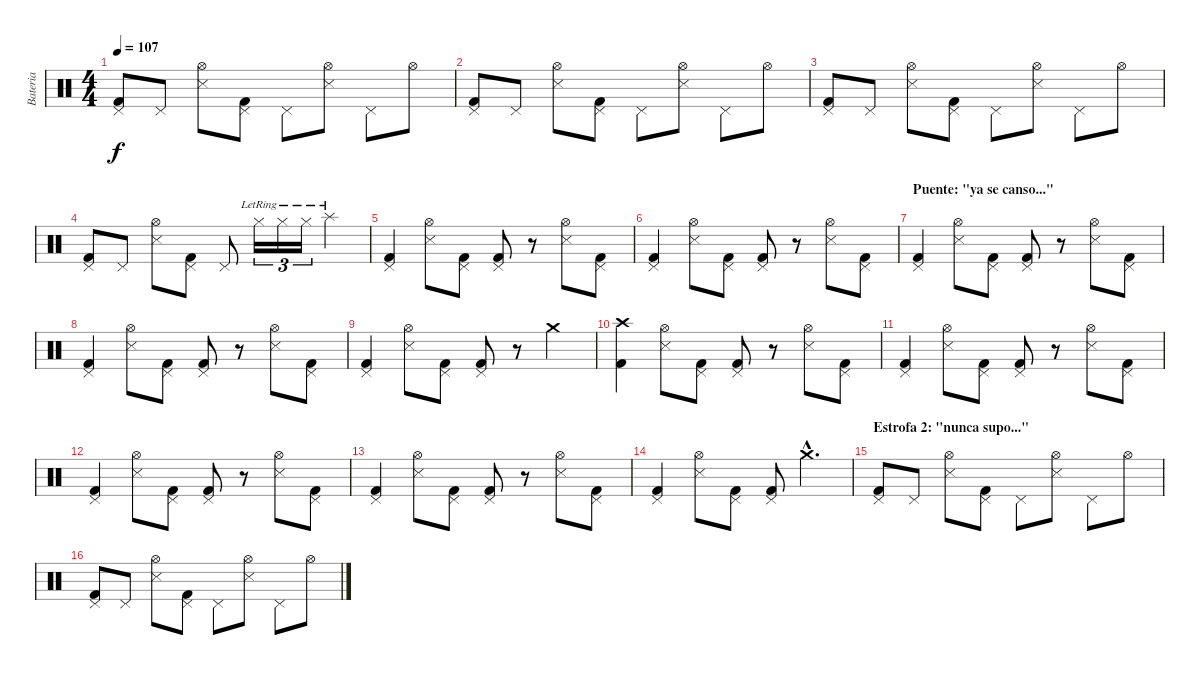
\track ("Bateria" "Bateria") {instrument percussion}
\staff {score}
\articulation defaults
\ts (4 4)
\tempo 107
\clef neutral
\ks c
("Kick (hit) 2" "Pedal Hi-Hat (hit)").8{dy f} "Pedal Hi-Hat (hit)".8 ("Hi-Hat (open)" "Snare (side stick) 3").8 ("Kick (hit) 2" "Pedal Hi-Hat (hit)").8 "Pedal Hi-Hat (hit)".8 ("Snare (side stick) 3" "Hi-Hat (open)").8 "Pedal Hi-Hat (hit)".8 "Hi-Hat (open)".8 |
("Kick (hit) 2" "Pedal Hi-Hat (hit)").8 "Pedal Hi-Hat (hit)".8 ("Hi-Hat (open)" "Snare (side stick) 3").8 ("Kick (hit) 2" "Pedal Hi-Hat (hit)").8 "Pedal Hi-Hat (hit)".8 ("Snare (side stick) 3" "Hi-Hat (open)").8 "Pedal Hi-Hat (hit)".8 "Hi-Hat (open)".8 |
("Kick (hit) 2" "Pedal Hi-Hat (hit)").8 "Pedal Hi-Hat (hit)".8 ("Hi-Hat (open)" "Snare (side stick) 3").8 ("Kick (hit) 2" "Pedal Hi-Hat (hit)").8 "Pedal Hi-Hat (hit)".8 ("Snare (side stick) 3" "Hi-Hat (open)").8 "Pedal Hi-Hat (hit)".8 "Hi-Hat (open)".8 |
("Kick (hit) 2" "Pedal Hi-Hat (hit)").8 "Pedal Hi-Hat (hit)".8 ("Hi-Hat (open)" "Snare (side stick) 3").8 ("Kick (hit) 2" "Pedal Hi-Hat (hit)").8 "Pedal Hi-Hat (hit)".8 "Hi-Hat (closed)"{lr}.16{tu (3 2)} "Hi-Hat (closed)"{lr}.16{tu (3 2)} "Hi-Hat (closed)"{lr}.16{tu (3 2)} "Splash (hit)"{lr}.4 |
("Pedal Hi-Hat (hit)" "Kick (hit) 2").4 ("Hi-Hat (open)" "Snare (side stick) 3").8 ("Pedal Hi-Hat (hit)" "Kick (hit) 2").8 ("Pedal Hi-Hat (hit)" "Kick (hit) 2").8 r.8 ("Hi-Hat (open)" "Snare (side stick) 3").8 ("Pedal Hi-Hat (hit)" "Kick (hit) 2").8 |
("Pedal Hi-Hat (hit)" "Kick (hit) 2").4 ("Hi-Hat (open)" "Snare (side stick) 3").8 ("Pedal Hi-Hat (hit)" "Kick (hit) 2").8 ("Pedal Hi-Hat (hit)" "Kick (hit) 2").8 r.8 ("Hi-Hat (open)" "Snare (side stick) 3").8 ("Pedal Hi-Hat (hit)" "Kick (hit) 2").8 |
\section ("" "Puente: \"ya se canso...\"")
("Pedal Hi-Hat (hit)" "Kick (hit) 2").4 ("Hi-Hat (open)" "Snare (side stick) 3").8 ("Pedal Hi-Hat (hit)" "Kick (hit) 2").8 ("Pedal Hi-Hat (hit)" "Kick (hit) 2").8 r.8 ("Hi-Hat (open)" "Snare (side stick) 3").8 ("Pedal Hi-Hat (hit)" "Kick (hit) 2").8 |
("Pedal Hi-Hat (hit)" "Kick (hit) 2").4 ("Hi-Hat (open)" "Snare (side stick) 3").8 ("Pedal Hi-Hat (hit)" "Kick (hit) 2").8 ("Pedal Hi-Hat (hit)" "Kick (hit) 2").8 r.8 ("Hi-Hat (open)" "Snare (side stick) 3").8 ("Pedal Hi-Hat (hit)" "Kick (hit) 2").8 |
("Pedal Hi-Hat (hit)" "Kick (hit) 2").4 ("Hi-Hat (open)" "Snare (side stick) 3").8 ("Pedal Hi-Hat (hit)" "Kick (hit) 2").8 ("Pedal Hi-Hat (hit)" "Kick (hit) 2").8 r.8 "Crash medium (hit)".4 |
("Crash high (hit)" "Kick (hit) 2").4 ("Hi-Hat (open)" "Snare (side stick) 3").8 ("Pedal Hi-Hat (hit)" "Kick (hit) 2").8 ("Pedal Hi-Hat (hit)" "Kick (hit) 2").8 r.8 ("Hi-Hat (open)" "Snare (side stick) 3").8 ("Pedal Hi-Hat (hit)" "Kick (hit) 2").8 |
("Pedal Hi-Hat (hit)" "Kick (hit) 2").4 ("Hi-Hat (open)" "Snare (side stick) 3").8 ("Pedal Hi-Hat (hit)" "Kick (hit) 2").8 ("Pedal Hi-Hat (hit)" "Kick (hit) 2").8 r.8 ("Hi-Hat (open)" "Snare (side stick) 3").8 ("Pedal Hi-Hat (hit)" "Kick (hit) 2").8 |
("Pedal Hi-Hat (hit)" "Kick (hit) 2").4 ("Hi-Hat (open)" "Snare (side stick) 3").8 ("Pedal Hi-Hat (hit)" "Kick (hit) 2").8 ("Pedal Hi-Hat (hit)" "Kick (hit) 2").8 r.8 ("Hi-Hat (open)" "Snare (side stick) 3").8 ("Pedal Hi-Hat (hit)" "Kick (hit) 2").8 |
("Pedal Hi-Hat (hit)" "Kick (hit) 2").4 ("Hi-Hat (open)" "Snare (side stick) 3").8 ("Pedal Hi-Hat (hit)" "Kick (hit) 2").8 ("Pedal Hi-Hat (hit)" "Kick (hit) 2").8 r.8 ("Hi-Hat (open)" "Snare (side stick) 3").8 ("Pedal Hi-Hat (hit)" "Kick (hit) 2").8 |
("Pedal Hi-Hat (hit)" "Kick (hit) 2").4 ("Hi-Hat (open)" "Snare (side stick) 3").8 ("Pedal Hi-Hat (hit)" "Kick (hit) 2").8 ("Pedal Hi-Hat (hit)" "Kick (hit) 2").8 "Crash medium (hit)"{hac}.4{d} |
\section ("" "Estrofa 2: \"nunca supo...\"")
("Kick (hit) 2" "Pedal Hi-Hat (hit)").8 "Pedal Hi-Hat (hit)".8 ("Hi-Hat (open)" "Snare (side stick) 3").8 ("Kick (hit) 2" "Pedal Hi-Hat (hit)").8 "Pedal Hi-Hat (hit)".8 ("Snare (side stick) 3" "Hi-Hat (open)").8 "Pedal Hi-Hat (hit)".8 "Hi-Hat (open)".8 |
("Kick (hit) 2" "Pedal Hi-Hat (hit)").8 "Pedal Hi-Hat (hit)".8 ("Hi-Hat (open)" "Snare (side stick) 3").8 ("Kick (hit) 2" "Pedal Hi-Hat (hit)").8 "Pedal Hi-Hat (hit)".8 ("Snare (side stick) 3" "Hi-Hat (open)").8 "Pedal Hi-Hat (hit)".8 "Hi-Hat (open)".8
